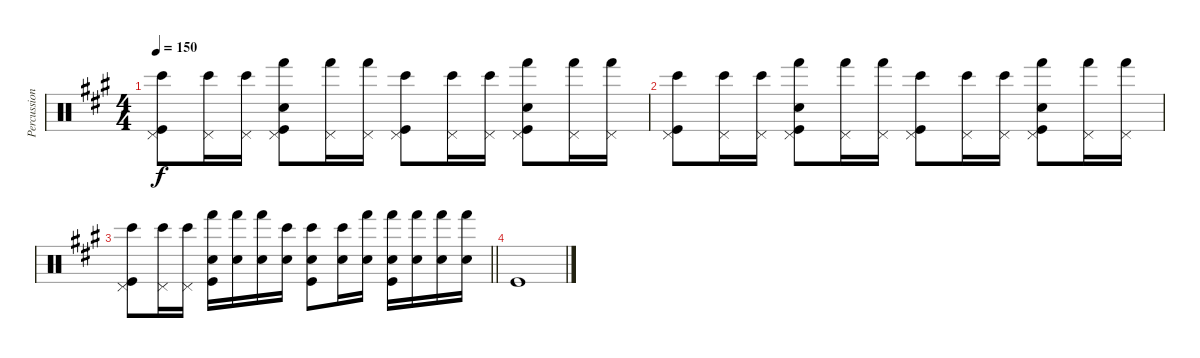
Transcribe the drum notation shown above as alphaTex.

\track ("Percussions" "Percussion") {instrument percussion}
\staff {score}
\articulation defaults
\ts (4 4)
\tempo 150
\clef neutral
\ks a
("Pedal Hi-Hat (hit)" "Kick (hit)" "Bongo High (hit)").8{dy f} ("Pedal Hi-Hat (hit)" "Bongo High (hit)").16 ("Pedal Hi-Hat (hit)" "Bongo High (hit)").16 ("Pedal Hi-Hat (hit)" "Snare (hit) 2" "Kick (hit)" "Hand (hit)").8 ("Pedal Hi-Hat (hit)" "Hand (hit)").16 ("Pedal Hi-Hat (hit)" "Hand (hit)").16 ("Pedal Hi-Hat (hit)" "Kick (hit)" "Bongo High (hit)").8 ("Pedal Hi-Hat (hit)" "Bongo High (hit)").16 ("Pedal Hi-Hat (hit)" "Bongo High (hit)").16 ("Pedal Hi-Hat (hit)" "Snare (hit) 2" "Kick (hit)" "Hand (hit)").8 ("Pedal Hi-Hat (hit)" "Hand (hit)").16 ("Pedal Hi-Hat (hit)" "Hand (hit)").16 |
("Pedal Hi-Hat (hit)" "Kick (hit)" "Bongo High (hit)").8 ("Pedal Hi-Hat (hit)" "Bongo High (hit)").16 ("Pedal Hi-Hat (hit)" "Bongo High (hit)").16 ("Pedal Hi-Hat (hit)" "Snare (hit) 2" "Kick (hit)" "Hand (hit)").8 ("Pedal Hi-Hat (hit)" "Hand (hit)").16 ("Pedal Hi-Hat (hit)" "Hand (hit)").16 ("Pedal Hi-Hat (hit)" "Kick (hit)" "Bongo High (hit)").8 ("Pedal Hi-Hat (hit)" "Bongo High (hit)").16 ("Pedal Hi-Hat (hit)" "Bongo High (hit)").16 ("Pedal Hi-Hat (hit)" "Snare (hit) 2" "Kick (hit)" "Hand (hit)").8 ("Pedal Hi-Hat (hit)" "Hand (hit)").16 ("Pedal Hi-Hat (hit)" "Hand (hit)").16 |
\barLineRight lightlight
("Pedal Hi-Hat (hit)" "Kick (hit)" "Bongo High (hit)").8 ("Pedal Hi-Hat (hit)" "Bongo High (hit)").16 ("Pedal Hi-Hat (hit)" "Bongo High (hit)").16 ("Snare (hit) 2" "Kick (hit)" "Hand (hit)").16 ("Snare (hit) 2" "Hand (hit)").16 ("Snare (hit) 2" "Hand (hit)").16 ("Snare (hit) 2" "Bongo High (hit)").16 ("Snare (hit) 2" "Kick (hit)" "Bongo High (hit)").8 ("Snare (hit) 2" "Bongo High (hit)").16 ("Snare (hit) 2" "Hand (hit)").16 ("Snare (hit) 2" "Kick (hit)" "Hand (hit)").16 ("Snare (hit) 2" "Hand (hit)").16 ("Snare (hit) 2" "Hand (hit)").16 ("Snare (hit) 2" "Hand (hit)").16 |
"Kick (hit)".1
